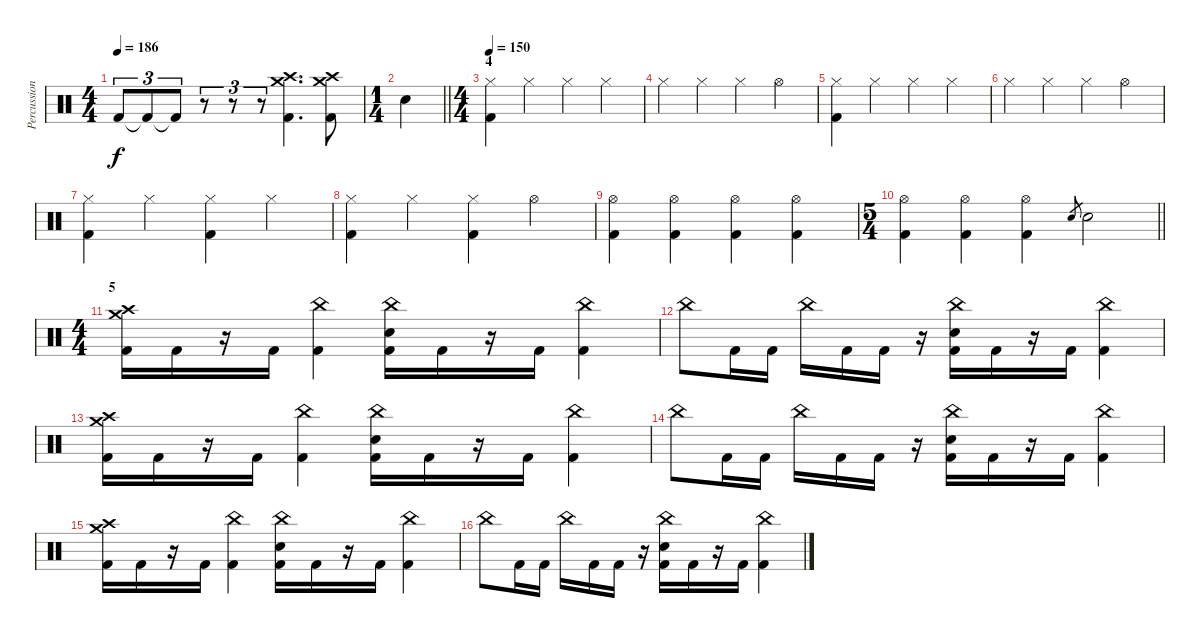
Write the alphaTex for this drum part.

\track ("Percussion" "Percussion") {instrument percussion}
\staff {score}
\articulation defaults
\ts (4 4)
\tempo 186
\clef neutral
\ks c "Kick (hit) 2".8{tu (3 2) dy f} "Kick (hit) 2"{t}.8{tu (3 2)} "Kick (hit) 2"{t}.8{tu (3 2)}
r.8{tu (3 2)} r.8{tu (3 2)} r.8{tu (3 2)} ("Crash medium (hit)" "Crash high (hit)" "Kick (hit) 2").4{d} ("Crash medium (hit)" "Crash high (hit)" "Kick (hit) 2").8 |
\ts (1 4)
\barLineRight lightlight "Electric Snare (hit)".4
|
\ts (4 4)
\section ("" "4")
\tempo 150
("Hi-Hat (closed)" "Kick (hit) 2").4 "Hi-Hat (closed)".4 "Hi-Hat (closed)".4 "Hi-Hat (closed)".4 |
"Hi-Hat (closed)".4 "Hi-Hat (closed)".4 "Hi-Hat (closed)".4 "Hi-Hat (open)".4 |
("Hi-Hat (closed)" "Kick (hit) 2").4 "Hi-Hat (closed)".4 "Hi-Hat (closed)".4 "Hi-Hat (closed)".4 |
"Hi-Hat (closed)".4 "Hi-Hat (closed)".4 "Hi-Hat (closed)".4 "Hi-Hat (open)".4 |
("Hi-Hat (closed)" "Kick (hit) 2").4 "Hi-Hat (closed)".4 ("Hi-Hat (closed)" "Kick (hit) 2").4 "Hi-Hat (closed)".4 |
("Hi-Hat (closed)" "Kick (hit) 2").4 "Hi-Hat (closed)".4 ("Hi-Hat (closed)" "Kick (hit) 2").4 "Hi-Hat (open)".4 |
("Hi-Hat (open)" "Kick (hit) 2").4 ("Hi-Hat (open)" "Kick (hit) 2").4 ("Hi-Hat (open)" "Kick (hit) 2").4 ("Hi-Hat (open)" "Kick (hit) 2").4 |
\ts (5 4)
\barLineRight lightlight
("Hi-Hat (open)" "Kick (hit) 2").4 ("Hi-Hat (open)" "Kick (hit) 2").4 ("Hi-Hat (open)" "Kick (hit) 2").4 "Electric Snare (hit)".8{gr} "Electric Snare (hit)".2 |
\ts (4 4)
\section ("" "5")
("Crash medium (hit)" "Crash high (hit)" "Kick (hit) 2").16 "Kick (hit) 2".16 r.16 "Kick (hit) 2".16 ("China (hit)" "Kick (hit) 2").4 ("China (hit)" "Electric Snare (hit)" "Kick (hit) 2").16 "Kick (hit) 2".16 r.16 "Kick (hit) 2".16 ("China (hit)" "Kick (hit) 2").4 |
"China (hit)".8 "Kick (hit) 2".16 "Kick (hit) 2".16 "China (hit)".16 "Kick (hit) 2".16 "Kick (hit) 2".16 r.16 ("China (hit)" "Electric Snare (hit)" "Kick (hit) 2").16 "Kick (hit) 2".16 r.16 "Kick (hit) 2".16 ("China (hit)" "Kick (hit) 2").4 |
("Crash medium (hit)" "Crash high (hit)" "Kick (hit) 2").16 "Kick (hit) 2".16 r.16 "Kick (hit) 2".16 ("China (hit)" "Kick (hit) 2").4 ("China (hit)" "Electric Snare (hit)" "Kick (hit) 2").16 "Kick (hit) 2".16 r.16 "Kick (hit) 2".16 ("China (hit)" "Kick (hit) 2").4 |
"China (hit)".8 "Kick (hit) 2".16 "Kick (hit) 2".16 "China (hit)".16 "Kick (hit) 2".16 "Kick (hit) 2".16 r.16 ("China (hit)" "Electric Snare (hit)" "Kick (hit) 2").16 "Kick (hit) 2".16 r.16 "Kick (hit) 2".16 ("China (hit)" "Kick (hit) 2").4 |
("Crash medium (hit)" "Crash high (hit)" "Kick (hit) 2").16 "Kick (hit) 2".16 r.16 "Kick (hit) 2".16 ("China (hit)" "Kick (hit) 2").4 ("China (hit)" "Electric Snare (hit)" "Kick (hit) 2").16 "Kick (hit) 2".16 r.16 "Kick (hit) 2".16 ("China (hit)" "Kick (hit) 2").4 |
"China (hit)".8 "Kick (hit) 2".16 "Kick (hit) 2".16 "China (hit)".16 "Kick (hit) 2".16 "Kick (hit) 2".16 r.16 ("China (hit)" "Electric Snare (hit)" "Kick (hit) 2").16 "Kick (hit) 2".16 r.16 "Kick (hit) 2".16 ("China (hit)" "Kick (hit) 2").4
